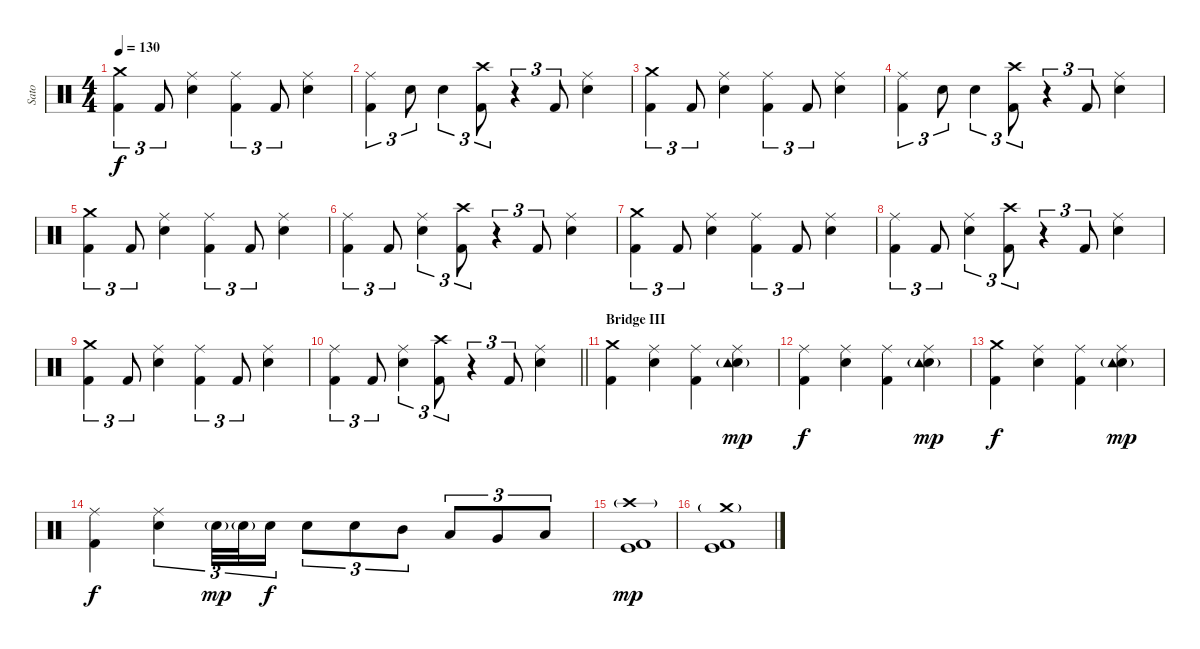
\track ("Sato" "Sato") {instrument percussion}
\staff {score}
\articulation defaults
\ts (4 4)
\tempo 130
\clef neutral
\ks c
("Crash medium (hit)" "Kick (hit) 2").4{tu (3 2) dy f} "Kick (hit) 2".8{tu (3 2)} ("Ride (middle)" "Electric Snare (hit)").4 ("Ride (middle)" "Kick (hit) 2").4{tu (3 2)} "Kick (hit) 2".8{tu (3 2)} ("Ride (middle)" "Electric Snare (hit)").4 |
("Ride (middle)" "Kick (hit) 2").4{tu (3 2)} "Electric Snare (hit)".8{tu (3 2)} "Electric Snare (hit)".4{tu (3 2)} ("Crash high (hit)" "Kick (hit) 2").8{tu (3 2)} r.4{tu (3 2)} "Kick (hit) 2".8{tu (3 2)} ("Ride (middle)" "Electric Snare (hit)").4 |
("Crash medium (hit)" "Kick (hit) 2").4{tu (3 2)} "Kick (hit) 2".8{tu (3 2)} ("Ride (middle)" "Electric Snare (hit)").4 ("Ride (middle)" "Kick (hit) 2").4{tu (3 2)} "Kick (hit) 2".8{tu (3 2)} ("Ride (middle)" "Electric Snare (hit)").4 |
("Ride (middle)" "Kick (hit) 2").4{tu (3 2)} "Electric Snare (hit)".8{tu (3 2)} "Electric Snare (hit)".4{tu (3 2)} ("Crash high (hit)" "Kick (hit) 2").8{tu (3 2)} r.4{tu (3 2)} "Kick (hit) 2".8{tu (3 2)} ("Ride (middle)" "Electric Snare (hit)").4 |
("Crash medium (hit)" "Kick (hit) 2").4{tu (3 2)} "Kick (hit) 2".8{tu (3 2)} ("Ride (middle)" "Electric Snare (hit)").4 ("Ride (middle)" "Kick (hit) 2").4{tu (3 2)} "Kick (hit) 2".8{tu (3 2)} ("Ride (middle)" "Electric Snare (hit)").4 |
("Ride (middle)" "Kick (hit) 2").4{tu (3 2)} "Kick (hit) 2".8{tu (3 2)} ("Ride (middle)" "Electric Snare (hit)").4{tu (3 2)} ("Crash high (hit)" "Kick (hit) 2").8{tu (3 2)} r.4{tu (3 2)} "Kick (hit) 2".8{tu (3 2)} ("Ride (middle)" "Electric Snare (hit)").4 |
("Crash medium (hit)" "Kick (hit) 2").4{tu (3 2)} "Kick (hit) 2".8{tu (3 2)} ("Ride (middle)" "Electric Snare (hit)").4 ("Ride (middle)" "Kick (hit) 2").4{tu (3 2)} "Kick (hit) 2".8{tu (3 2)} ("Ride (middle)" "Electric Snare (hit)").4 |
("Ride (middle)" "Kick (hit) 2").4{tu (3 2)} "Kick (hit) 2".8{tu (3 2)} ("Ride (middle)" "Electric Snare (hit)").4{tu (3 2)} ("Crash high (hit)" "Kick (hit) 2").8{tu (3 2)} r.4{tu (3 2)} "Kick (hit) 2".8{tu (3 2)} ("Ride (middle)" "Electric Snare (hit)").4 |
("Crash medium (hit)" "Kick (hit) 2").4{tu (3 2)} "Kick (hit) 2".8{tu (3 2)} ("Ride (middle)" "Electric Snare (hit)").4 ("Ride (middle)" "Kick (hit) 2").4{tu (3 2)} "Kick (hit) 2".8{tu (3 2)} ("Ride (middle)" "Electric Snare (hit)").4 |
\barLineRight lightlight
("Ride (middle)" "Kick (hit) 2").4{tu (3 2)} "Kick (hit) 2".8{tu (3 2)} ("Ride (middle)" "Electric Snare (hit)").4{tu (3 2)} ("Crash high (hit)" "Kick (hit) 2").8{tu (3 2)} r.4{tu (3 2)} "Kick (hit) 2".8{tu (3 2)} ("Ride (middle)" "Electric Snare (hit)").4 |
\section ("" "Bridge III")
("Crash medium (hit)" "Kick (hit) 2").4 ("Ride (middle)" "Electric Snare (hit)").4 ("Ride (middle)" "Kick (hit) 2").4 ("Ride (middle)" "Electric Snare (hit)" "Tambourine (hit)"{g}).4{dy mp} |
("Ride (middle)" "Kick (hit) 2").4{dy f} ("Ride (middle)" "Electric Snare (hit)").4 ("Ride (middle)" "Kick (hit) 2").4 ("Ride (middle)" "Electric Snare (hit)" "Tambourine (hit)"{g}).4{dy mp} |
("Crash medium (hit)" "Kick (hit) 2").4{dy f} ("Ride (middle)" "Electric Snare (hit)").4 ("Ride (middle)" "Kick (hit) 2").4 ("Ride (middle)" "Electric Snare (hit)" "Tambourine (hit)"{g}).4{dy mp} |
("Ride (middle)" "Kick (hit) 2").4{dy f} ("Ride (middle)" "Electric Snare (hit)").4{tu (3 2)} "Electric Snare (hit)"{g}.32{tu (3 2) dy mp} "Electric Snare (hit)"{g}.32{tu (3 2)} "Electric Snare (hit)".16{tu (3 2) dy f} "Electric Snare (hit)".8{tu (3 2)} "Electric Snare (hit)".8{tu (3 2)} "Mid Tom (hit)".8{tu (3 2)} "Low Tom (hit)".8{tu (3 2)} "Very Low Tom (hit)".8{tu (3 2)} "Low Floor Tom (hit)".8{tu (3 2)} |
("Crash high (hit)"{g} "Kick (hit) 2" "Kick (hit)").1{dy mp} |
("Crash medium (hit)"{g} "Kick (hit) 2" "Kick (hit)").1
